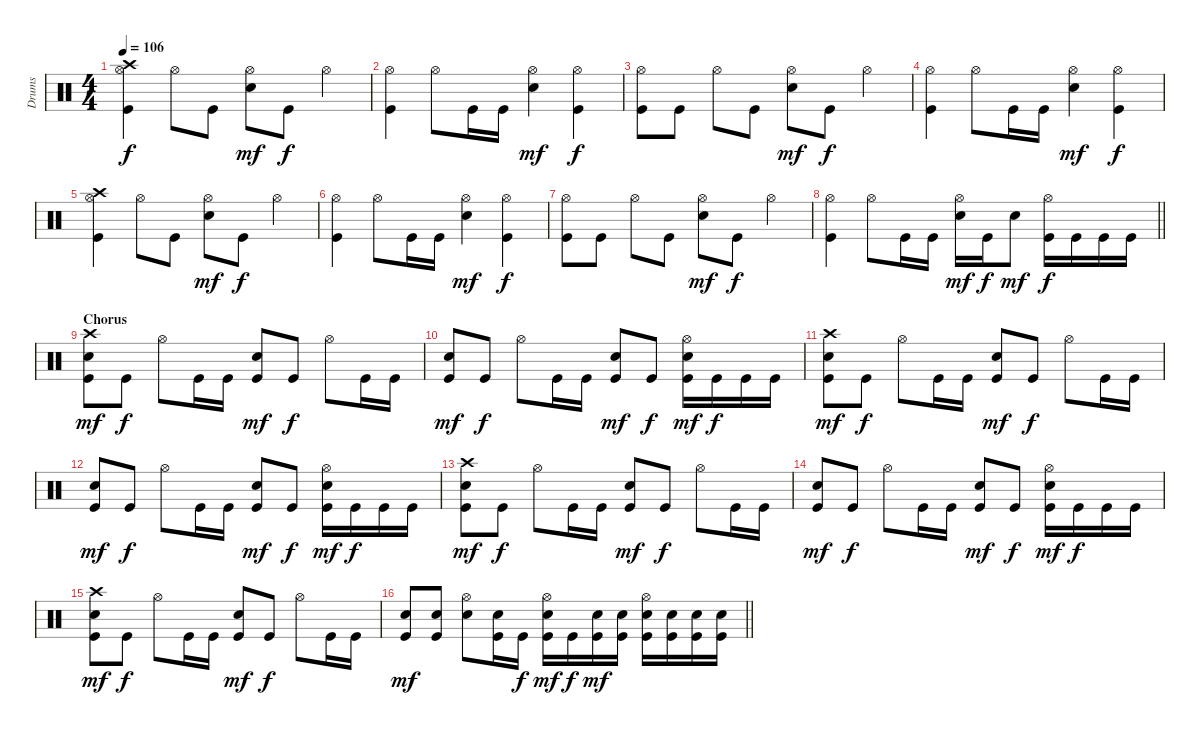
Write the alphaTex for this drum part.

\track ("Drums" "Drums") {instrument percussion}
\staff {score}
\articulation defaults
\ts (4 4)
\section ("" "")
\tempo 106
\clef neutral
\ks c
("Crash high (hit)" "Hi-Hat (open)" "Kick (hit)").4{dy f} "Hi-Hat (open)".8 "Kick (hit)".8 ("Hi-Hat (open)" "Electric Snare (hit)").8{dy mf} "Kick (hit)".8{dy f} "Hi-Hat (open)".4 |
("Hi-Hat (open)" "Kick (hit)").4 "Hi-Hat (open)".8 "Kick (hit)".16 "Kick (hit)".16 ("Hi-Hat (open)" "Electric Snare (hit)").4{dy mf} ("Hi-Hat (open)" "Kick (hit)").4{dy f} |
("Hi-Hat (open)" "Kick (hit)").8 "Kick (hit)".8 "Hi-Hat (open)".8 "Kick (hit)".8 ("Hi-Hat (open)" "Electric Snare (hit)").8{dy mf} "Kick (hit)".8{dy f} "Hi-Hat (open)".4 |
("Hi-Hat (open)" "Kick (hit)").4 "Hi-Hat (open)".8 "Kick (hit)".16 "Kick (hit)".16 ("Hi-Hat (open)" "Electric Snare (hit)").4{dy mf} ("Hi-Hat (open)" "Kick (hit)").4{dy f} |
("Crash high (hit)" "Hi-Hat (open)" "Kick (hit)").4 "Hi-Hat (open)".8 "Kick (hit)".8 ("Hi-Hat (open)" "Electric Snare (hit)").8{dy mf} "Kick (hit)".8{dy f} "Hi-Hat (open)".4 |
("Hi-Hat (open)" "Kick (hit)").4 "Hi-Hat (open)".8 "Kick (hit)".16 "Kick (hit)".16 ("Hi-Hat (open)" "Electric Snare (hit)").4{dy mf} ("Hi-Hat (open)" "Kick (hit)").4{dy f} |
("Hi-Hat (open)" "Kick (hit)").8 "Kick (hit)".8 "Hi-Hat (open)".8 "Kick (hit)".8 ("Hi-Hat (open)" "Electric Snare (hit)").8{dy mf} "Kick (hit)".8{dy f} "Hi-Hat (open)".4 |
\barLineRight lightlight
("Hi-Hat (open)" "Kick (hit)").4 "Hi-Hat (open)".8 "Kick (hit)".16 "Kick (hit)".16 ("Hi-Hat (open)" "Electric Snare (hit)").16{dy mf} "Kick (hit)".16{dy f} "Electric Snare (hit)".8{dy mf} ("Hi-Hat (open)" "Kick (hit)").16{dy f} "Kick (hit)".16 "Kick (hit)".16 "Kick (hit)".16 |
\section ("" "Chorus")
("Crash high (hit)" "Electric Snare (hit)" "Kick (hit)").8{dy mf} "Kick (hit)".8{dy f} "Hi-Hat (open)".8 "Kick (hit)".16 "Kick (hit)".16 ("Electric Snare (hit)" "Kick (hit)").8{dy mf} "Kick (hit)".8{dy f} "Hi-Hat (open)".8 "Kick (hit)".16 "Kick (hit)".16 |
("Electric Snare (hit)" "Kick (hit)").8{dy mf} "Kick (hit)".8{dy f} "Hi-Hat (open)".8 "Kick (hit)".16 "Kick (hit)".16 ("Electric Snare (hit)" "Kick (hit)").8{dy mf} "Kick (hit)".8{dy f} ("Hi-Hat (open)" "Electric Snare (hit)" "Kick (hit)").16{dy mf} "Kick (hit)".16{dy f} "Kick (hit)".16 "Kick (hit)".16 |
("Crash high (hit)" "Electric Snare (hit)" "Kick (hit)").8{dy mf} "Kick (hit)".8{dy f} "Hi-Hat (open)".8 "Kick (hit)".16 "Kick (hit)".16 ("Electric Snare (hit)" "Kick (hit)").8{dy mf} "Kick (hit)".8{dy f} "Hi-Hat (open)".8 "Kick (hit)".16 "Kick (hit)".16 |
("Electric Snare (hit)" "Kick (hit)").8{dy mf} "Kick (hit)".8{dy f} "Hi-Hat (open)".8 "Kick (hit)".16 "Kick (hit)".16 ("Electric Snare (hit)" "Kick (hit)").8{dy mf} "Kick (hit)".8{dy f} ("Hi-Hat (open)" "Electric Snare (hit)" "Kick (hit)").16{dy mf} "Kick (hit)".16{dy f} "Kick (hit)".16 "Kick (hit)".16 |
("Crash high (hit)" "Electric Snare (hit)" "Kick (hit)").8{dy mf} "Kick (hit)".8{dy f} "Hi-Hat (open)".8 "Kick (hit)".16 "Kick (hit)".16 ("Electric Snare (hit)" "Kick (hit)").8{dy mf} "Kick (hit)".8{dy f} "Hi-Hat (open)".8 "Kick (hit)".16 "Kick (hit)".16 |
("Electric Snare (hit)" "Kick (hit)").8{dy mf} "Kick (hit)".8{dy f} "Hi-Hat (open)".8 "Kick (hit)".16 "Kick (hit)".16 ("Electric Snare (hit)" "Kick (hit)").8{dy mf} "Kick (hit)".8{dy f} ("Hi-Hat (open)" "Electric Snare (hit)" "Kick (hit)").16{dy mf} "Kick (hit)".16{dy f} "Kick (hit)".16 "Kick (hit)".16 |
("Crash high (hit)" "Electric Snare (hit)" "Kick (hit)").8{dy mf} "Kick (hit)".8{dy f} "Hi-Hat (open)".8 "Kick (hit)".16 "Kick (hit)".16 ("Electric Snare (hit)" "Kick (hit)").8{dy mf} "Kick (hit)".8{dy f} "Hi-Hat (open)".8 "Kick (hit)".16 "Kick (hit)".16 |
\barLineRight lightlight
("Electric Snare (hit)" "Kick (hit)").8{dy mf} ("Electric Snare (hit)" "Kick (hit)").8 ("Hi-Hat (open)" "Electric Snare (hit)").8 ("Electric Snare (hit)" "Kick (hit)").16 "Kick (hit)".16{dy f} ("Hi-Hat (open)" "Electric Snare (hit)" "Kick (hit)").16{dy mf} "Kick (hit)".16{dy f} ("Electric Snare (hit)" "Kick (hit)").16{dy mf} ("Electric Snare (hit)" "Kick (hit)").16 ("Hi-Hat (open)" "Electric Snare (hit)" "Kick (hit)").16 ("Electric Snare (hit)" "Kick (hit)").16 ("Electric Snare (hit)" "Kick (hit)").16 ("Electric Snare (hit)" "Kick (hit)").16
